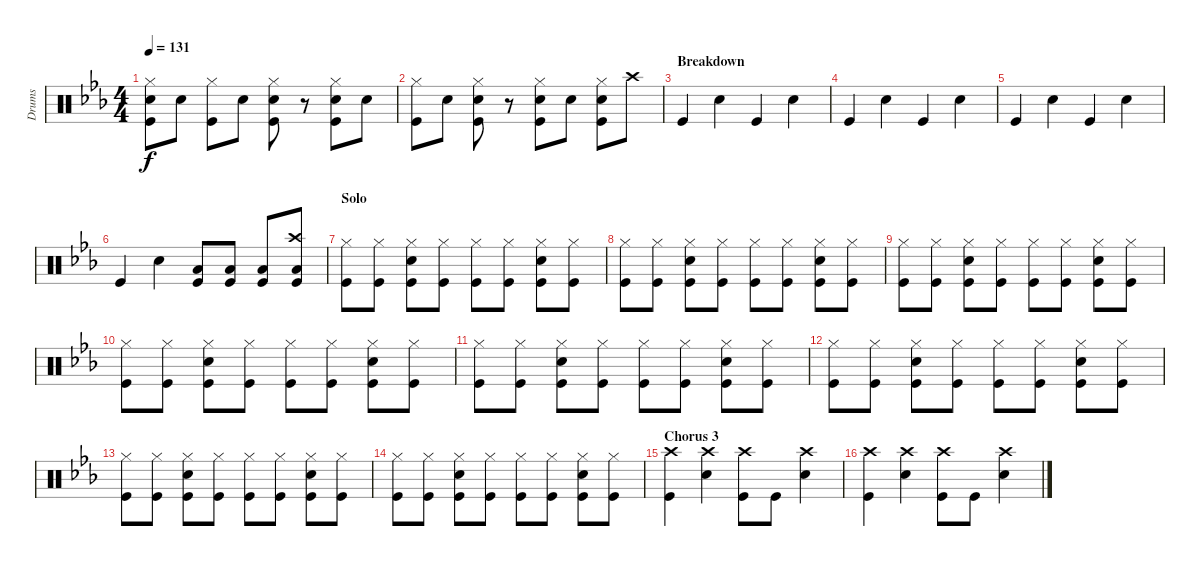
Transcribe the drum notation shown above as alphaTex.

\track ("Drums" "Drums") {instrument percussion}
\staff {score}
\articulation defaults
\ts (4 4)
\tempo 131
\clef neutral
\ks eb
("Kick (hit)" "Snare (hit) 2" "Hi-Hat (closed)").8{dy f} "Snare (hit) 2".8 ("Kick (hit)" "Hi-Hat (closed)").8 "Snare (hit) 2".8 ("Kick (hit)" "Snare (hit) 2" "Hi-Hat (closed)").8 r.8 ("Kick (hit)" "Snare (hit) 2" "Hi-Hat (closed)").8 "Snare (hit) 2".8 |
("Kick (hit)" "Hi-Hat (closed)").8 "Snare (hit) 2".8 ("Kick (hit)" "Snare (hit) 2" "Hi-Hat (closed)").8 r.8 ("Kick (hit)" "Snare (hit) 2" "Hi-Hat (closed)").8 "Snare (hit) 2".8 ("Kick (hit)" "Snare (hit) 2" "Hi-Hat (closed)").8 "Crash high (hit)".8 |
\section ("" "Breakdown")
"Kick (hit)".4 "Snare (hit) 2".4 "Kick (hit)".4 "Snare (hit) 2".4 |
"Kick (hit)".4 "Snare (hit) 2".4 "Kick (hit)".4 "Snare (hit) 2".4 |
"Kick (hit)".4 "Snare (hit) 2".4 "Kick (hit)".4 "Snare (hit) 2".4 |
"Kick (hit)".4 "Snare (hit) 2".4 ("Kick (hit)" "Low Floor Tom (hit)").8 ("Kick (hit)" "Low Floor Tom (hit)").8 ("Kick (hit)" "Low Floor Tom (hit)").8 ("Kick (hit)" "Low Floor Tom (hit)" "Crash high (hit)").8 |
\section ("" "Solo")
("Kick (hit)" "Hi-Hat (closed)").8 ("Kick (hit)" "Hi-Hat (closed)").8 ("Kick (hit)" "Snare (hit) 2" "Hi-Hat (closed)").8 ("Kick (hit)" "Hi-Hat (closed)").8 ("Kick (hit)" "Hi-Hat (closed)").8 ("Kick (hit)" "Hi-Hat (closed)").8 ("Kick (hit)" "Snare (hit) 2" "Hi-Hat (closed)").8 ("Kick (hit)" "Hi-Hat (closed)").8 |
("Kick (hit)" "Hi-Hat (closed)").8 ("Kick (hit)" "Hi-Hat (closed)").8 ("Kick (hit)" "Snare (hit) 2" "Hi-Hat (closed)").8 ("Kick (hit)" "Hi-Hat (closed)").8 ("Kick (hit)" "Hi-Hat (closed)").8 ("Kick (hit)" "Hi-Hat (closed)").8 ("Kick (hit)" "Snare (hit) 2" "Hi-Hat (closed)").8 ("Kick (hit)" "Hi-Hat (closed)").8 |
("Kick (hit)" "Hi-Hat (closed)").8 ("Kick (hit)" "Hi-Hat (closed)").8 ("Kick (hit)" "Snare (hit) 2" "Hi-Hat (closed)").8 ("Kick (hit)" "Hi-Hat (closed)").8 ("Kick (hit)" "Hi-Hat (closed)").8 ("Kick (hit)" "Hi-Hat (closed)").8 ("Kick (hit)" "Snare (hit) 2" "Hi-Hat (closed)").8 ("Kick (hit)" "Hi-Hat (closed)").8 |
("Kick (hit)" "Hi-Hat (closed)").8 ("Kick (hit)" "Hi-Hat (closed)").8 ("Kick (hit)" "Snare (hit) 2" "Hi-Hat (closed)").8 ("Kick (hit)" "Hi-Hat (closed)").8 ("Kick (hit)" "Hi-Hat (closed)").8 ("Kick (hit)" "Hi-Hat (closed)").8 ("Kick (hit)" "Snare (hit) 2" "Hi-Hat (closed)").8 ("Kick (hit)" "Hi-Hat (closed)").8 |
("Kick (hit)" "Hi-Hat (closed)").8 ("Kick (hit)" "Hi-Hat (closed)").8 ("Kick (hit)" "Snare (hit) 2" "Hi-Hat (closed)").8 ("Kick (hit)" "Hi-Hat (closed)").8 ("Kick (hit)" "Hi-Hat (closed)").8 ("Kick (hit)" "Hi-Hat (closed)").8 ("Kick (hit)" "Snare (hit) 2" "Hi-Hat (closed)").8 ("Kick (hit)" "Hi-Hat (closed)").8 |
("Kick (hit)" "Hi-Hat (closed)").8 ("Kick (hit)" "Hi-Hat (closed)").8 ("Kick (hit)" "Snare (hit) 2" "Hi-Hat (closed)").8 ("Kick (hit)" "Hi-Hat (closed)").8 ("Kick (hit)" "Hi-Hat (closed)").8 ("Kick (hit)" "Hi-Hat (closed)").8 ("Kick (hit)" "Snare (hit) 2" "Hi-Hat (closed)").8 ("Kick (hit)" "Hi-Hat (closed)").8 |
("Kick (hit)" "Hi-Hat (closed)").8 ("Kick (hit)" "Hi-Hat (closed)").8 ("Kick (hit)" "Snare (hit) 2" "Hi-Hat (closed)").8 ("Kick (hit)" "Hi-Hat (closed)").8 ("Kick (hit)" "Hi-Hat (closed)").8 ("Kick (hit)" "Hi-Hat (closed)").8 ("Kick (hit)" "Snare (hit) 2" "Hi-Hat (closed)").8 ("Kick (hit)" "Hi-Hat (closed)").8 |
("Kick (hit)" "Hi-Hat (closed)").8 ("Kick (hit)" "Hi-Hat (closed)").8 ("Kick (hit)" "Snare (hit) 2" "Hi-Hat (closed)").8 ("Kick (hit)" "Hi-Hat (closed)").8 ("Kick (hit)" "Hi-Hat (closed)").8 ("Kick (hit)" "Hi-Hat (closed)").8 ("Kick (hit)" "Snare (hit) 2" "Hi-Hat (closed)").8 ("Kick (hit)" "Hi-Hat (closed)").8 |
\section ("" "Chorus 3")
("Kick (hit)" "Crash high (hit)").4 ("Snare (hit) 2" "Crash high (hit)").4 ("Kick (hit)" "Crash high (hit)").8 "Kick (hit)".8 ("Snare (hit) 2" "Crash high (hit)").4 |
("Kick (hit)" "Crash high (hit)").4 ("Snare (hit) 2" "Crash high (hit)").4 ("Kick (hit)" "Crash high (hit)").8 "Kick (hit)".8 ("Snare (hit) 2" "Crash high (hit)").4
